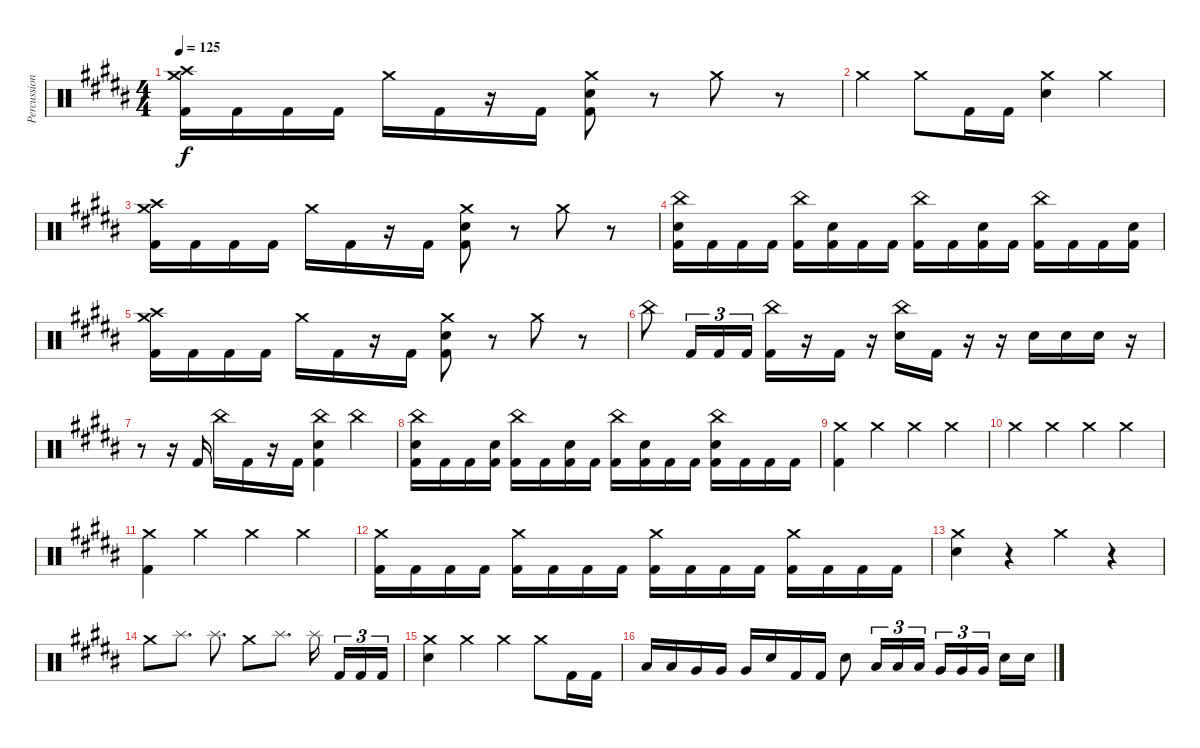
\track ("Percussion" "Percussion") {instrument percussion}
\staff {score}
\articulation defaults
\ts (4 4)
\tempo 125
\clef neutral
\ks g#minor
("Crash medium (hit)" "Crash high (hit)" "Kick (hit) 2").16{dy f} "Kick (hit) 2".16 "Kick (hit) 2".16 "Kick (hit) 2".16 "Crash medium (hit)".16 "Kick (hit) 2".16 r.16 "Kick (hit) 2".16 ("Crash medium (hit)" "Electric Snare (hit)" "Kick (hit) 2").8 r.8 "Crash medium (hit)".8 r.8 |
"Crash medium (hit)".4 "Crash medium (hit)".8 "Kick (hit) 2".16 "Kick (hit) 2".16 ("Crash medium (hit)" "Electric Snare (hit)").4 "Crash medium (hit)".4 |
("Crash medium (hit)" "Crash high (hit)" "Kick (hit) 2").16 "Kick (hit) 2".16 "Kick (hit) 2".16 "Kick (hit) 2".16 "Crash medium (hit)".16 "Kick (hit) 2".16 r.16 "Kick (hit) 2".16 ("Crash medium (hit)" "Electric Snare (hit)" "Kick (hit) 2").8 r.8 "Crash medium (hit)".8 r.8 |
("China (hit)" "Electric Snare (hit)" "Kick (hit) 2").16 "Kick (hit) 2".16 "Kick (hit) 2".16 "Kick (hit) 2".16 ("China (hit)" "Kick (hit) 2").16 ("Electric Snare (hit)" "Kick (hit) 2").16 "Kick (hit) 2".16 "Kick (hit) 2".16 ("China (hit)" "Kick (hit) 2").16 "Kick (hit) 2".16 ("Electric Snare (hit)" "Kick (hit) 2").16 "Kick (hit) 2".16 ("China (hit)" "Kick (hit) 2").16 "Kick (hit) 2".16 "Kick (hit) 2".16 ("Electric Snare (hit)" "Kick (hit) 2").16 |
("Crash medium (hit)" "Crash high (hit)" "Kick (hit) 2").16 "Kick (hit) 2".16 "Kick (hit) 2".16 "Kick (hit) 2".16 "Crash medium (hit)".16 "Kick (hit) 2".16 r.16 "Kick (hit) 2".16 ("Crash medium (hit)" "Electric Snare (hit)" "Kick (hit) 2").8 r.8 "Crash medium (hit)".8 r.8 |
"China (hit)".8 "Kick (hit) 2".16{tu (3 2)} "Kick (hit) 2".16{tu (3 2)} "Kick (hit) 2".16{tu (3 2)} ("China (hit)" "Kick (hit) 2").16 r.16 "Kick (hit) 2".16 r.16 ("China (hit)" "Electric Snare (hit)").16 "Kick (hit) 2".16 r.16 r.16 "Electric Snare (hit)".16 "Electric Snare (hit)".16 "Electric Snare (hit)".16 r.16 |
r.8 r.16 "Kick (hit) 2".16 "China (hit)".16 "Kick (hit) 2".16 r.16 "Kick (hit) 2".16 ("China (hit)" "Electric Snare (hit)" "Kick (hit) 2").4 "China (hit)".4 |
("China (hit)" "Electric Snare (hit)" "Kick (hit) 2").16 "Kick (hit) 2".16 "Kick (hit) 2".16 ("Electric Snare (hit)" "Kick (hit) 2").16 ("China (hit)" "Kick (hit) 2").16 "Kick (hit) 2".16 ("Electric Snare (hit)" "Kick (hit) 2").16 "Kick (hit) 2".16 ("China (hit)" "Kick (hit) 2").16 ("Electric Snare (hit)" "Kick (hit) 2").16 "Kick (hit) 2".16 "Kick (hit) 2".16 ("China (hit)" "Electric Snare (hit)" "Kick (hit) 2").16 "Kick (hit) 2".16 "Kick (hit) 2".16 "Kick (hit) 2".16 |
("Crash medium (hit)" "Kick (hit) 2").4 "Crash medium (hit)".4 "Crash medium (hit)".4 "Crash medium (hit)".4 |
"Crash medium (hit)".4 "Crash medium (hit)".4 "Crash medium (hit)".4 "Crash medium (hit)".4 |
("Crash medium (hit)" "Kick (hit) 2").4 "Crash medium (hit)".4 "Crash medium (hit)".4 "Crash medium (hit)".4 |
("Crash medium (hit)" "Kick (hit) 2").16 "Kick (hit) 2".16 "Kick (hit) 2".16 "Kick (hit) 2".16 ("Crash medium (hit)" "Kick (hit) 2").16 "Kick (hit) 2".16 "Kick (hit) 2".16 "Kick (hit) 2".16 ("Crash medium (hit)" "Kick (hit) 2").16 "Kick (hit) 2".16 "Kick (hit) 2".16 "Kick (hit) 2".16 ("Crash medium (hit)" "Kick (hit) 2").16 "Kick (hit) 2".16 "Kick (hit) 2".16 "Kick (hit) 2".16 |
("Crash medium (hit)" "Electric Snare (hit)").4 r.4 "Crash medium (hit)".4 r.4 |
"Crash medium (hit)".8 "Splash (hit)".8{d} "Splash (hit)".8{d} "Crash medium (hit)".8 "Splash (hit)".8{d} "Splash (hit)".16{beam splitsecondary} "Kick (hit) 2".16{tu (3 2)} "Kick (hit) 2".16{tu (3 2)} "Kick (hit) 2".16{tu (3 2)} |
("Crash medium (hit)" "Electric Snare (hit)").4 "Crash medium (hit)".4 "Crash medium (hit)".4 "Crash medium (hit)".8 "Kick (hit) 2".16 "Kick (hit) 2".16 |
"Low Tom (hit)".16 "Low Tom (hit)".16 "Very Low Tom (hit)".16 "Very Low Tom (hit)".16 "Very Low Tom (hit)".16 "Electric Snare (hit)".16 "Kick (hit) 2".16 "Kick (hit) 2".16 "Electric Snare (hit)".8 "Low Tom (hit)".16{tu (3 2)} "Low Tom (hit)".16{tu (3 2)} "Low Tom (hit)".16{tu (3 2)} "Very Low Tom (hit)".16{tu (3 2)} "Very Low Tom (hit)".16{tu (3 2)} "Very Low Tom (hit)".16{tu (3 2) beam splitsecondary} "Electric Snare (hit)".16 "Electric Snare (hit)".16
